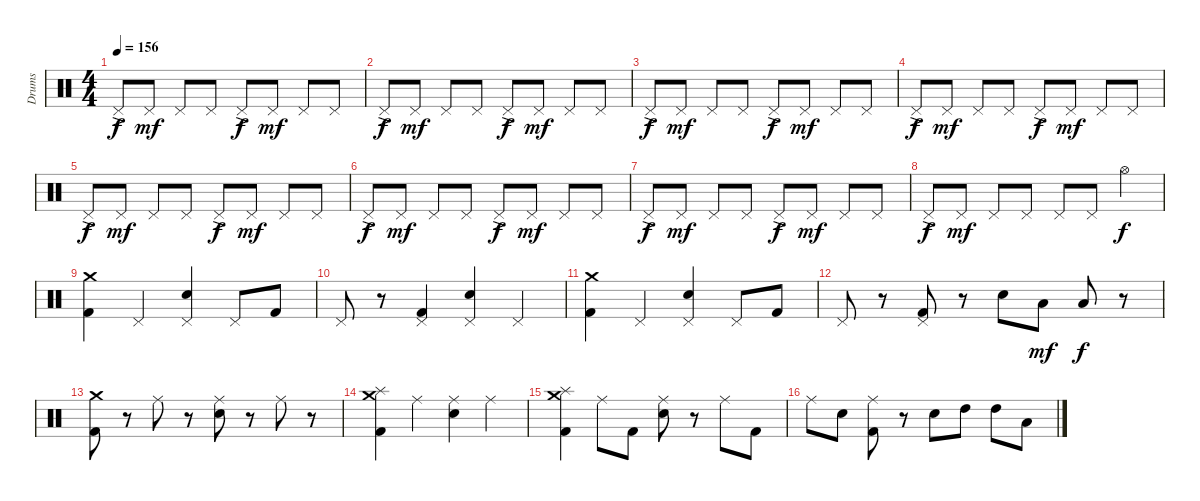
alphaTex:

\track ("Drums" "Drums") {instrument percussion}
\staff {score}
\articulation defaults
\ts (4 4)
\tempo 156
\clef neutral
\ks c "Pedal Hi-Hat (hit)"{ac}.8{dy f} "Pedal Hi-Hat (hit)".8{dy mf} "Pedal Hi-Hat (hit)".8 "Pedal Hi-Hat (hit)".8 "Pedal Hi-Hat (hit)"{ac}.8{dy f} "Pedal Hi-Hat (hit)".8{dy mf} "Pedal Hi-Hat (hit)".8 "Pedal Hi-Hat (hit)".8
|
"Pedal Hi-Hat (hit)"{ac}.8{dy f} "Pedal Hi-Hat (hit)".8{dy mf} "Pedal Hi-Hat (hit)".8 "Pedal Hi-Hat (hit)".8 "Pedal Hi-Hat (hit)"{ac}.8{dy f} "Pedal Hi-Hat (hit)".8{dy mf} "Pedal Hi-Hat (hit)".8 "Pedal Hi-Hat (hit)".8 |
"Pedal Hi-Hat (hit)"{ac}.8{dy f} "Pedal Hi-Hat (hit)".8{dy mf} "Pedal Hi-Hat (hit)".8 "Pedal Hi-Hat (hit)".8 "Pedal Hi-Hat (hit)"{ac}.8{dy f} "Pedal Hi-Hat (hit)".8{dy mf} "Pedal Hi-Hat (hit)".8 "Pedal Hi-Hat (hit)".8 |
"Pedal Hi-Hat (hit)"{ac}.8{dy f} "Pedal Hi-Hat (hit)".8{dy mf} "Pedal Hi-Hat (hit)".8 "Pedal Hi-Hat (hit)".8 "Pedal Hi-Hat (hit)"{ac}.8{dy f} "Pedal Hi-Hat (hit)".8{dy mf} "Pedal Hi-Hat (hit)".8 "Pedal Hi-Hat (hit)".8 |
"Pedal Hi-Hat (hit)"{ac}.8{dy f} "Pedal Hi-Hat (hit)".8{dy mf} "Pedal Hi-Hat (hit)".8 "Pedal Hi-Hat (hit)".8 "Pedal Hi-Hat (hit)"{ac}.8{dy f} "Pedal Hi-Hat (hit)".8{dy mf} "Pedal Hi-Hat (hit)".8 "Pedal Hi-Hat (hit)".8 |
"Pedal Hi-Hat (hit)"{ac}.8{dy f} "Pedal Hi-Hat (hit)".8{dy mf} "Pedal Hi-Hat (hit)".8 "Pedal Hi-Hat (hit)".8 "Pedal Hi-Hat (hit)"{ac}.8{dy f} "Pedal Hi-Hat (hit)".8{dy mf} "Pedal Hi-Hat (hit)".8 "Pedal Hi-Hat (hit)".8 |
"Pedal Hi-Hat (hit)"{ac}.8{dy f} "Pedal Hi-Hat (hit)".8{dy mf} "Pedal Hi-Hat (hit)".8 "Pedal Hi-Hat (hit)".8 "Pedal Hi-Hat (hit)"{ac}.8{dy f} "Pedal Hi-Hat (hit)".8{dy mf} "Pedal Hi-Hat (hit)".8 "Pedal Hi-Hat (hit)".8 |
"Pedal Hi-Hat (hit)"{ac}.8{dy f} "Pedal Hi-Hat (hit)".8{dy mf} "Pedal Hi-Hat (hit)".8 "Pedal Hi-Hat (hit)".8 "Pedal Hi-Hat (hit)".8 "Pedal Hi-Hat (hit)".8 "Hi-Hat (open)".4{dy f} |
("Crash medium (hit)" "Kick (hit) 2").4 "Pedal Hi-Hat (hit)".4 ("Pedal Hi-Hat (hit)" "Electric Snare (hit)").4 "Pedal Hi-Hat (hit)".8 "Kick (hit) 2".8 |
"Pedal Hi-Hat (hit)".8 r.8 ("Pedal Hi-Hat (hit)" "Kick (hit) 2").4 ("Pedal Hi-Hat (hit)" "Electric Snare (hit)").4 "Pedal Hi-Hat (hit)".4 |
("Crash medium (hit)" "Kick (hit) 2").4 "Pedal Hi-Hat (hit)".4 ("Pedal Hi-Hat (hit)" "Electric Snare (hit)").4 "Pedal Hi-Hat (hit)".8 "Kick (hit) 2".8 |
"Pedal Hi-Hat (hit)".8 r.8 ("Pedal Hi-Hat (hit)" "Kick (hit) 2").8 r.8 "Electric Snare (hit)".8 "Low Tom (hit)".8{dy mf} "Low Tom (hit)".8{dy f} r.8 |
("Crash medium (hit)" "Kick (hit) 2").8 r.8 "Ride (middle)".8 r.8 ("Ride (middle)" "Electric Snare (hit)").8 r.8 "Ride (middle)".8 r.8 |
("Crash medium (hit)" "Splash (hit)" "Kick (hit) 2").4 "Ride (middle)".4 ("Ride (middle)" "Electric Snare (hit)").4 "Ride (middle)".4 |
("Crash medium (hit)" "Splash (hit)" "Kick (hit) 2").4 "Ride (middle)".8 "Kick (hit) 2".8 ("Ride (middle)" "Electric Snare (hit)").8 r.8 "Ride (middle)".8 "Kick (hit) 2".8 |
"Ride (middle)".8 "Electric Snare (hit)".8 ("Ride (middle)" "Kick (hit) 2").8 r.8 "Electric Snare (hit)".8 "High Tom (hit)".8 "High Tom (hit)".8 "Low Tom (hit)".8
